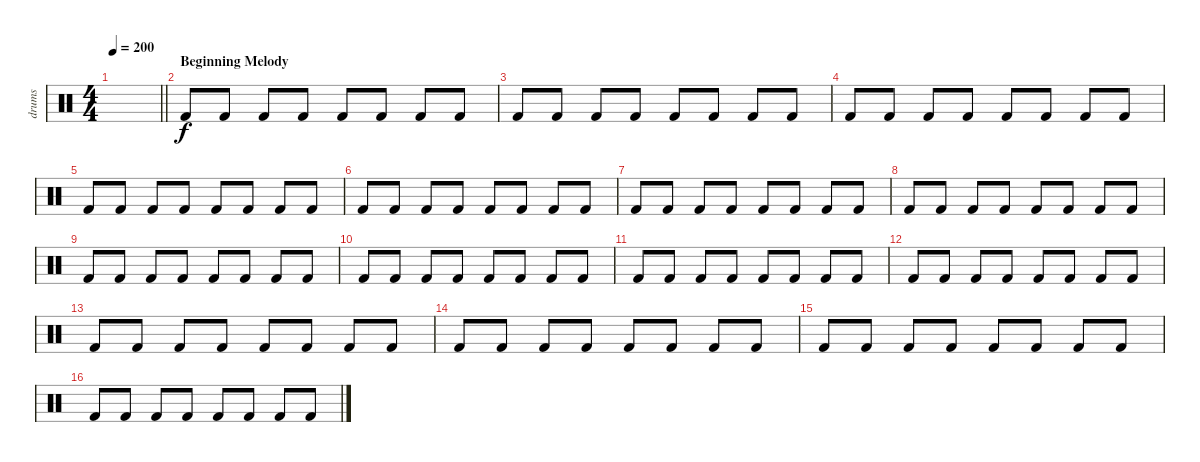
\track ("drums" "drums") {instrument percussion}
\staff {score}
\articulation defaults
\ts (4 4)
\tempo 200
\clef neutral
\barLineRight lightlight
\ks c
|
\section ("" "Beginning Melody")
"Kick (hit) 2".8 "Kick (hit) 2".8 "Kick (hit) 2".8 "Kick (hit) 2".8 "Kick (hit) 2".8 "Kick (hit) 2".8 "Kick (hit) 2".8 "Kick (hit) 2".8 |
"Kick (hit) 2".8 "Kick (hit) 2".8 "Kick (hit) 2".8 "Kick (hit) 2".8 "Kick (hit) 2".8 "Kick (hit) 2".8 "Kick (hit) 2".8 "Kick (hit) 2".8 |
"Kick (hit) 2".8 "Kick (hit) 2".8 "Kick (hit) 2".8 "Kick (hit) 2".8 "Kick (hit) 2".8 "Kick (hit) 2".8 "Kick (hit) 2".8 "Kick (hit) 2".8 |
"Kick (hit) 2".8 "Kick (hit) 2".8 "Kick (hit) 2".8 "Kick (hit) 2".8 "Kick (hit) 2".8 "Kick (hit) 2".8 "Kick (hit) 2".8 "Kick (hit) 2".8 |
"Kick (hit) 2".8 "Kick (hit) 2".8 "Kick (hit) 2".8 "Kick (hit) 2".8 "Kick (hit) 2".8 "Kick (hit) 2".8 "Kick (hit) 2".8 "Kick (hit) 2".8 |
"Kick (hit) 2".8 "Kick (hit) 2".8 "Kick (hit) 2".8 "Kick (hit) 2".8 "Kick (hit) 2".8 "Kick (hit) 2".8 "Kick (hit) 2".8 "Kick (hit) 2".8 |
"Kick (hit) 2".8 "Kick (hit) 2".8 "Kick (hit) 2".8 "Kick (hit) 2".8 "Kick (hit) 2".8 "Kick (hit) 2".8 "Kick (hit) 2".8 "Kick (hit) 2".8 |
"Kick (hit) 2".8 "Kick (hit) 2".8 "Kick (hit) 2".8 "Kick (hit) 2".8 "Kick (hit) 2".8 "Kick (hit) 2".8 "Kick (hit) 2".8 "Kick (hit) 2".8 |
"Kick (hit) 2".8 "Kick (hit) 2".8 "Kick (hit) 2".8 "Kick (hit) 2".8 "Kick (hit) 2".8 "Kick (hit) 2".8 "Kick (hit) 2".8 "Kick (hit) 2".8 |
"Kick (hit) 2".8 "Kick (hit) 2".8 "Kick (hit) 2".8 "Kick (hit) 2".8 "Kick (hit) 2".8 "Kick (hit) 2".8 "Kick (hit) 2".8 "Kick (hit) 2".8 |
"Kick (hit) 2".8 "Kick (hit) 2".8 "Kick (hit) 2".8 "Kick (hit) 2".8 "Kick (hit) 2".8 "Kick (hit) 2".8 "Kick (hit) 2".8 "Kick (hit) 2".8 |
"Kick (hit) 2".8 "Kick (hit) 2".8 "Kick (hit) 2".8 "Kick (hit) 2".8 "Kick (hit) 2".8 "Kick (hit) 2".8 "Kick (hit) 2".8 "Kick (hit) 2".8 |
"Kick (hit) 2".8 "Kick (hit) 2".8 "Kick (hit) 2".8 "Kick (hit) 2".8 "Kick (hit) 2".8 "Kick (hit) 2".8 "Kick (hit) 2".8 "Kick (hit) 2".8 |
"Kick (hit) 2".8 "Kick (hit) 2".8 "Kick (hit) 2".8 "Kick (hit) 2".8 "Kick (hit) 2".8 "Kick (hit) 2".8 "Kick (hit) 2".8 "Kick (hit) 2".8 |
"Kick (hit) 2".8 "Kick (hit) 2".8 "Kick (hit) 2".8 "Kick (hit) 2".8 "Kick (hit) 2".8 "Kick (hit) 2".8 "Kick (hit) 2".8 "Kick (hit) 2".8
